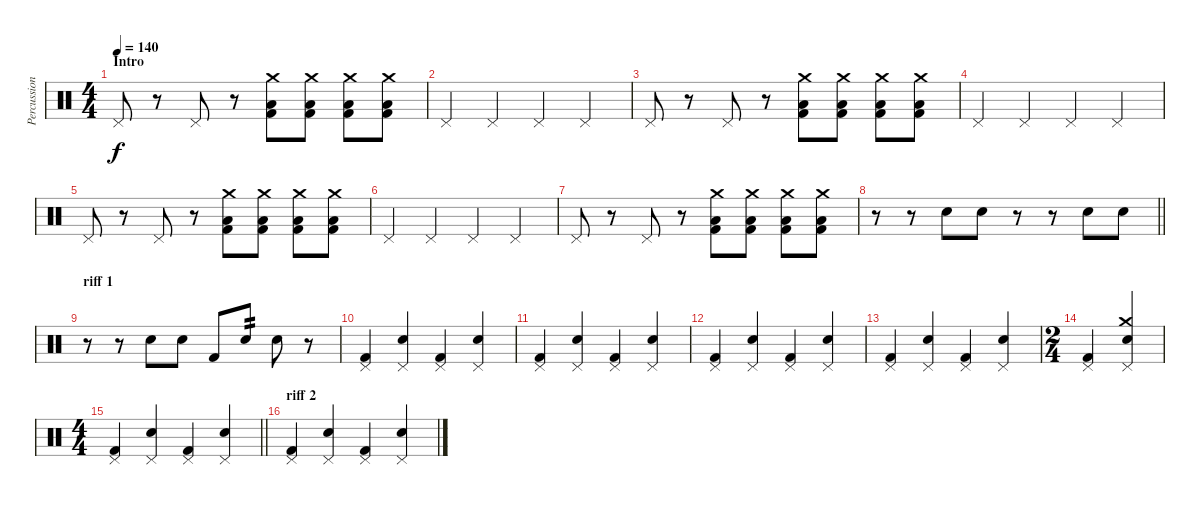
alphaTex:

\track ("Percussion" "Percussion") {instrument percussion}
\staff {score}
\articulation defaults
\ts (4 4)
\section ("" "Intro")
\tempo 140
\clef neutral
\ks c "Pedal Hi-Hat (hit)".8{dy f}
r.8 "Pedal Hi-Hat (hit)".8 r.8 ("Low Floor Tom (hit)" "Kick (hit) 2" "Crash medium (hit)").8 ("Low Floor Tom (hit)" "Kick (hit) 2" "Crash medium (hit)").8 ("Low Floor Tom (hit)" "Kick (hit) 2" "Crash medium (hit)").8 ("Low Floor Tom (hit)" "Kick (hit) 2" "Crash medium (hit)").8 |
"Pedal Hi-Hat (hit)".4 "Pedal Hi-Hat (hit)".4 "Pedal Hi-Hat (hit)".4 "Pedal Hi-Hat (hit)".4 |
"Pedal Hi-Hat (hit)".8 r.8 "Pedal Hi-Hat (hit)".8 r.8 ("Low Floor Tom (hit)" "Kick (hit) 2" "Crash medium (hit)").8 ("Low Floor Tom (hit)" "Kick (hit) 2" "Crash medium (hit)").8 ("Low Floor Tom (hit)" "Kick (hit) 2" "Crash medium (hit)").8 ("Low Floor Tom (hit)" "Kick (hit) 2" "Crash medium (hit)").8 |
"Pedal Hi-Hat (hit)".4 "Pedal Hi-Hat (hit)".4 "Pedal Hi-Hat (hit)".4 "Pedal Hi-Hat (hit)".4 |
"Pedal Hi-Hat (hit)".8 r.8 "Pedal Hi-Hat (hit)".8 r.8 ("Low Floor Tom (hit)" "Kick (hit) 2" "Crash medium (hit)").8 ("Low Floor Tom (hit)" "Kick (hit) 2" "Crash medium (hit)").8 ("Low Floor Tom (hit)" "Kick (hit) 2" "Crash medium (hit)").8 ("Low Floor Tom (hit)" "Kick (hit) 2" "Crash medium (hit)").8 |
"Pedal Hi-Hat (hit)".4 "Pedal Hi-Hat (hit)".4 "Pedal Hi-Hat (hit)".4 "Pedal Hi-Hat (hit)".4 |
"Pedal Hi-Hat (hit)".8 r.8 "Pedal Hi-Hat (hit)".8 r.8 ("Low Floor Tom (hit)" "Kick (hit) 2" "Crash medium (hit)").8 ("Low Floor Tom (hit)" "Kick (hit) 2" "Crash medium (hit)").8 ("Low Floor Tom (hit)" "Kick (hit) 2" "Crash medium (hit)").8 ("Low Floor Tom (hit)" "Kick (hit) 2" "Crash medium (hit)").8 |
\barLineRight lightlight
r.8 r.8 "Snare (hit) 2".8 "Snare (hit) 2".8 r.8 r.8 "Snare (hit) 2".8 "Snare (hit) 2".8 |
\section ("" "riff 1")
r.8 r.8 "Snare (hit) 2".8 "Snare (hit) 2".8 "Kick (hit) 2".8 "Snare (hit) 2".8{tp 2} "Snare (hit) 2".8 r.8 |
("Kick (hit) 2" "Pedal Hi-Hat (hit)").4 ("Snare (hit) 2" "Pedal Hi-Hat (hit)").4 ("Kick (hit) 2" "Pedal Hi-Hat (hit)").4 ("Snare (hit) 2" "Pedal Hi-Hat (hit)").4 |
("Kick (hit) 2" "Pedal Hi-Hat (hit)").4 ("Snare (hit) 2" "Pedal Hi-Hat (hit)").4 ("Kick (hit) 2" "Pedal Hi-Hat (hit)").4 ("Snare (hit) 2" "Pedal Hi-Hat (hit)").4 |
("Kick (hit) 2" "Pedal Hi-Hat (hit)").4 ("Snare (hit) 2" "Pedal Hi-Hat (hit)").4 ("Kick (hit) 2" "Pedal Hi-Hat (hit)").4 ("Snare (hit) 2" "Pedal Hi-Hat (hit)").4 |
("Kick (hit) 2" "Pedal Hi-Hat (hit)").4 ("Snare (hit) 2" "Pedal Hi-Hat (hit)").4 ("Kick (hit) 2" "Pedal Hi-Hat (hit)").4 ("Snare (hit) 2" "Pedal Hi-Hat (hit)").4 |
\ts (2 4)
("Kick (hit) 2" "Pedal Hi-Hat (hit)").4 ("Snare (hit) 2" "Pedal Hi-Hat (hit)" "Crash medium (hit)").4 |
\ts (4 4)
\barLineRight lightlight
("Kick (hit) 2" "Pedal Hi-Hat (hit)").4 ("Snare (hit) 2" "Pedal Hi-Hat (hit)").4 ("Kick (hit) 2" "Pedal Hi-Hat (hit)").4 ("Snare (hit) 2" "Pedal Hi-Hat (hit)").4 |
\section ("" "riff 2")
("Kick (hit) 2" "Pedal Hi-Hat (hit)").4 ("Snare (hit) 2" "Pedal Hi-Hat (hit)").4 ("Kick (hit) 2" "Pedal Hi-Hat (hit)").4 ("Snare (hit) 2" "Pedal Hi-Hat (hit)").4
